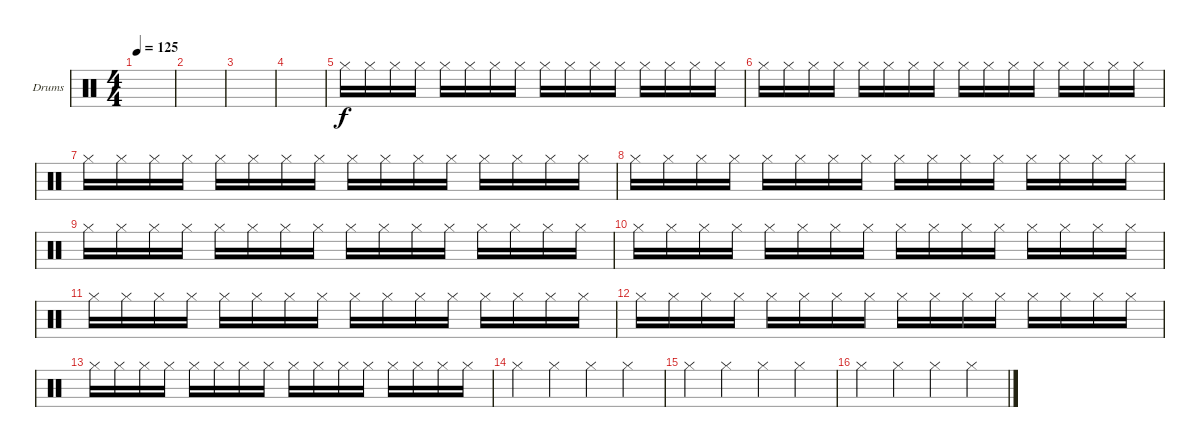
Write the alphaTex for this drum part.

\defaultSystemsLayout 4
\bracketExtendMode groupsimilarinstruments
\firstSystemTrackNameOrientation horizontal
\otherSystemsTrackNameOrientation horizontal
\track ("Drumkit" "Drums") {instrument percussion}
\staff {score}
\articulation defaults
\ts (4 4)
\tempo 125
\clef neutral
\scale
0.474178
\ks c
|
\scale
0.262911 |
\scale
0.262911 |
\scale
0.333333 |
\scale
0.333333 "Hi-Hat (closed)".16 "Hi-Hat (closed)".16 "Hi-Hat (closed)".16 "Hi-Hat (closed)".16 "Hi-Hat (closed)".16 "Hi-Hat (closed)".16 "Hi-Hat (closed)".16 "Hi-Hat (closed)".16 "Hi-Hat (closed)".16 "Hi-Hat (closed)".16 "Hi-Hat (closed)".16 "Hi-Hat (closed)".16 "Hi-Hat (closed)".16 "Hi-Hat (closed)".16 "Hi-Hat (closed)".16 "Hi-Hat (closed)".16 |
\scale
0.333333 "Hi-Hat (closed)".16 "Hi-Hat (closed)".16 "Hi-Hat (closed)".16 "Hi-Hat (closed)".16 "Hi-Hat (closed)".16 "Hi-Hat (closed)".16 "Hi-Hat (closed)".16 "Hi-Hat (closed)".16 "Hi-Hat (closed)".16 "Hi-Hat (closed)".16 "Hi-Hat (closed)".16 "Hi-Hat (closed)".16 "Hi-Hat (closed)".16 "Hi-Hat (closed)".16 "Hi-Hat (closed)".16 "Hi-Hat (closed)".16 |
\scale
0.333333 "Hi-Hat (closed)".16 "Hi-Hat (closed)".16 "Hi-Hat (closed)".16 "Hi-Hat (closed)".16 "Hi-Hat (closed)".16 "Hi-Hat (closed)".16 "Hi-Hat (closed)".16 "Hi-Hat (closed)".16 "Hi-Hat (closed)".16 "Hi-Hat (closed)".16 "Hi-Hat (closed)".16 "Hi-Hat (closed)".16 "Hi-Hat (closed)".16 "Hi-Hat (closed)".16 "Hi-Hat (closed)".16 "Hi-Hat (closed)".16 |
\scale
0.333333 "Hi-Hat (closed)".16 "Hi-Hat (closed)".16 "Hi-Hat (closed)".16 "Hi-Hat (closed)".16 "Hi-Hat (closed)".16 "Hi-Hat (closed)".16 "Hi-Hat (closed)".16 "Hi-Hat (closed)".16 "Hi-Hat (closed)".16 "Hi-Hat (closed)".16 "Hi-Hat (closed)".16 "Hi-Hat (closed)".16 "Hi-Hat (closed)".16 "Hi-Hat (closed)".16 "Hi-Hat (closed)".16 "Hi-Hat (closed)".16 |
\scale
0.333333 "Hi-Hat (closed)".16 "Hi-Hat (closed)".16 "Hi-Hat (closed)".16 "Hi-Hat (closed)".16 "Hi-Hat (closed)".16 "Hi-Hat (closed)".16 "Hi-Hat (closed)".16 "Hi-Hat (closed)".16 "Hi-Hat (closed)".16 "Hi-Hat (closed)".16 "Hi-Hat (closed)".16 "Hi-Hat (closed)".16 "Hi-Hat (closed)".16 "Hi-Hat (closed)".16 "Hi-Hat (closed)".16 "Hi-Hat (closed)".16 |
\scale
0.333333 "Hi-Hat (closed)".16 "Hi-Hat (closed)".16 "Hi-Hat (closed)".16 "Hi-Hat (closed)".16 "Hi-Hat (closed)".16 "Hi-Hat (closed)".16 "Hi-Hat (closed)".16 "Hi-Hat (closed)".16 "Hi-Hat (closed)".16 "Hi-Hat (closed)".16 "Hi-Hat (closed)".16 "Hi-Hat (closed)".16 "Hi-Hat (closed)".16 "Hi-Hat (closed)".16 "Hi-Hat (closed)".16 "Hi-Hat (closed)".16 |
"Hi-Hat (closed)".16 "Hi-Hat (closed)".16 "Hi-Hat (closed)".16 "Hi-Hat (closed)".16 "Hi-Hat (closed)".16 "Hi-Hat (closed)".16 "Hi-Hat (closed)".16 "Hi-Hat (closed)".16 "Hi-Hat (closed)".16 "Hi-Hat (closed)".16 "Hi-Hat (closed)".16 "Hi-Hat (closed)".16 "Hi-Hat (closed)".16 "Hi-Hat (closed)".16 "Hi-Hat (closed)".16 "Hi-Hat (closed)".16 |
"Hi-Hat (closed)".16 "Hi-Hat (closed)".16 "Hi-Hat (closed)".16 "Hi-Hat (closed)".16 "Hi-Hat (closed)".16 "Hi-Hat (closed)".16 "Hi-Hat (closed)".16 "Hi-Hat (closed)".16 "Hi-Hat (closed)".16 "Hi-Hat (closed)".16 "Hi-Hat (closed)".16 "Hi-Hat (closed)".16 "Hi-Hat (closed)".16 "Hi-Hat (closed)".16 "Hi-Hat (closed)".16 "Hi-Hat (closed)".16 |
"Hi-Hat (closed)".16 "Hi-Hat (closed)".16 "Hi-Hat (closed)".16 "Hi-Hat (closed)".16 "Hi-Hat (closed)".16 "Hi-Hat (closed)".16 "Hi-Hat (closed)".16 "Hi-Hat (closed)".16 "Hi-Hat (closed)".16 "Hi-Hat (closed)".16 "Hi-Hat (closed)".16 "Hi-Hat (closed)".16 "Hi-Hat (closed)".16 "Hi-Hat (closed)".16 "Hi-Hat (closed)".16 "Hi-Hat (closed)".16 |
"Hi-Hat (closed)".4 "Hi-Hat (closed)".4 "Hi-Hat (closed)".4 "Hi-Hat (closed)".4 |
"Hi-Hat (closed)".4 "Hi-Hat (closed)".4 "Hi-Hat (closed)".4 "Hi-Hat (closed)".4 |
"Hi-Hat (closed)".4 "Hi-Hat (closed)".4 "Hi-Hat (closed)".4 "Hi-Hat (closed)".4
